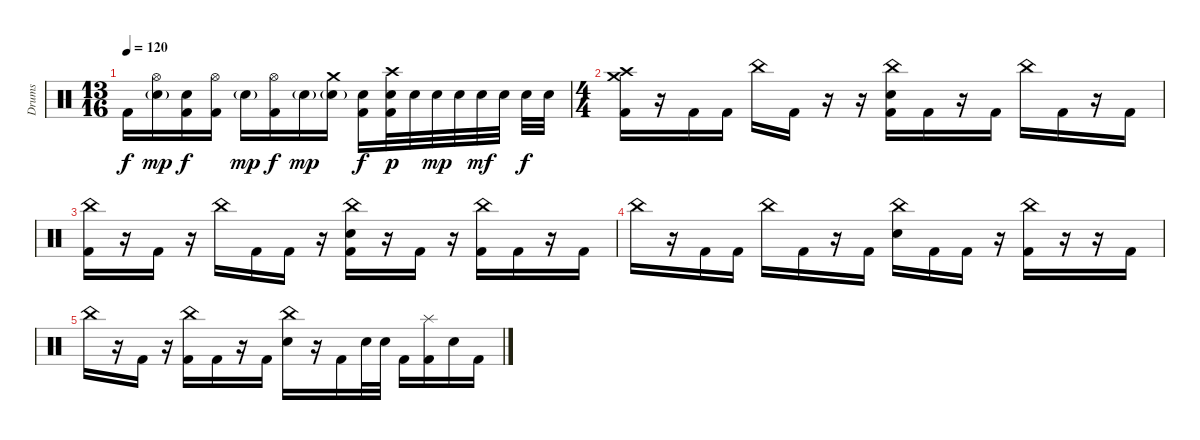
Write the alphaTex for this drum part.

\track ("Drums" "Drums") {instrument percussion}
\staff {score}
\articulation defaults
\ts (13 16)
\tempo 120
\clef neutral
\ks c "Kick (hit) 2".16{dy f}
("Hi-Hat (open)" "Electric Snare (hit)"{g}).16{dy mp} ("Electric Snare (hit)" "Kick (hit) 2").16{dy f} ("Hi-Hat (open)" "Kick (hit) 2").16 "Electric Snare (hit)"{g}.16{dy mp} ("Hi-Hat (open)" "Kick (hit) 2").16{dy f} "Electric Snare (hit)"{g}.16{dy mp} ("Crash medium (hit)" "Electric Snare (hit)"{g}).16 ("Electric Snare (hit)" "Kick (hit) 2").16{dy f} ("Crash high (hit)" "Electric Snare (hit)" "Kick (hit) 2").32{dy p} "Electric Snare (hit)".32 "Electric Snare (hit)".32{dy mp} "Electric Snare (hit)".32 "Electric Snare (hit)".32{dy mf} "Electric Snare (hit)".32 "Electric Snare (hit)".32{dy f} "Electric Snare (hit)".32 |
\ts (4 4)
("Crash medium (hit)" "Crash high (hit)" "Kick (hit) 2").16 r.16 "Kick (hit) 2".16 "Kick (hit) 2".16 "China (hit)".16 "Kick (hit) 2".16 r.16 r.16 ("China (hit)" "Electric Snare (hit)" "Kick (hit) 2").16 "Kick (hit) 2".16 r.16 "Kick (hit) 2".16 "China (hit)".16 "Kick (hit) 2".16 r.16 "Kick (hit) 2".16 |
("China (hit)" "Kick (hit) 2").16 r.16 "Kick (hit) 2".16 r.16 "China (hit)".16 "Kick (hit) 2".16 "Kick (hit) 2".16 r.16 ("China (hit)" "Electric Snare (hit)" "Kick (hit) 2").16 r.16 "Kick (hit) 2".16 r.16 ("China (hit)" "Kick (hit) 2").16 "Kick (hit) 2".16 r.16 "Kick (hit) 2".16 |
"China (hit)".16 r.16 "Kick (hit) 2".16 "Kick (hit) 2".16 "China (hit)".16 "Kick (hit) 2".16 r.16 "Kick (hit) 2".16 ("China (hit)" "Electric Snare (hit)").16 "Kick (hit) 2".16 "Kick (hit) 2".16 r.16 ("China (hit)" "Kick (hit) 2").16 r.16 r.16 "Kick (hit) 2".16 |
"China (hit)".16 r.16 "Kick (hit) 2".16 r.16 ("China (hit)" "Kick (hit) 2").16 "Kick (hit) 2".16 r.16 "Kick (hit) 2".16 ("China (hit)" "Electric Snare (hit)").16 r.16 "Kick (hit) 2".16 "Electric Snare (hit)".32 "Electric Snare (hit)".32 "Kick (hit) 2".16 ("Splash (hit)" "Kick (hit) 2").16 "Electric Snare (hit)".16 "Kick (hit) 2".16
